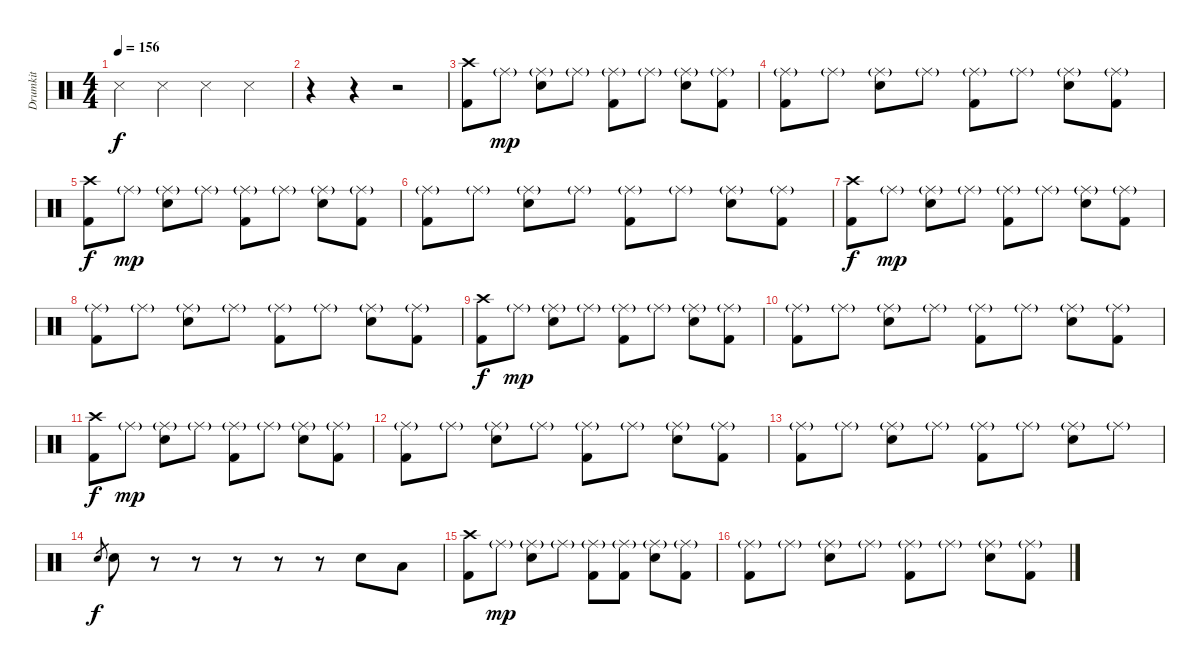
\track ("Drumkit" "Drumkit") {instrument percussion}
\staff {score}
\articulation defaults
\ts (4 4)
\tempo 156
\clef neutral
\ks c "Snare (side stick) 3".4{dy f} "Snare (side stick) 3".4 "Snare (side stick) 3".4 "Snare (side stick) 3".4
|
r.4 r.4 r.2 |
("Crash high (hit)" "Kick (hit) 2").8 "Ride (middle)"{g}.8{dy mp} ("Ride (middle)"{g} "Electric Snare (hit)").8 "Ride (middle)"{g}.8 ("Ride (middle)"{g} "Kick (hit) 2").8 "Ride (middle)"{g}.8 ("Ride (middle)"{g} "Electric Snare (hit)").8 ("Ride (middle)"{g} "Kick (hit) 2").8 |
("Ride (middle)"{g} "Kick (hit) 2").8 "Ride (middle)"{g}.8 ("Ride (middle)"{g} "Electric Snare (hit)").8 "Ride (middle)"{g}.8 ("Ride (middle)"{g} "Kick (hit) 2").8 "Ride (middle)"{g}.8 ("Ride (middle)"{g} "Electric Snare (hit)").8 ("Ride (middle)"{g} "Kick (hit) 2").8 |
("Crash high (hit)" "Kick (hit) 2").8{dy f} "Ride (middle)"{g}.8{dy mp} ("Ride (middle)"{g} "Electric Snare (hit)").8 "Ride (middle)"{g}.8 ("Ride (middle)"{g} "Kick (hit) 2").8 "Ride (middle)"{g}.8 ("Ride (middle)"{g} "Electric Snare (hit)").8 ("Ride (middle)"{g} "Kick (hit) 2").8 |
("Ride (middle)"{g} "Kick (hit) 2").8 "Ride (middle)"{g}.8 ("Ride (middle)"{g} "Electric Snare (hit)").8 "Ride (middle)"{g}.8 ("Ride (middle)"{g} "Kick (hit) 2").8 "Ride (middle)"{g}.8 ("Ride (middle)"{g} "Electric Snare (hit)").8 ("Ride (middle)"{g} "Kick (hit) 2").8 |
("Crash high (hit)" "Kick (hit) 2").8{dy f} "Ride (middle)"{g}.8{dy mp} ("Ride (middle)"{g} "Electric Snare (hit)").8 "Ride (middle)"{g}.8 ("Ride (middle)"{g} "Kick (hit) 2").8 "Ride (middle)"{g}.8 ("Ride (middle)"{g} "Electric Snare (hit)").8 ("Ride (middle)"{g} "Kick (hit) 2").8 |
("Ride (middle)"{g} "Kick (hit) 2").8 "Ride (middle)"{g}.8 ("Ride (middle)"{g} "Electric Snare (hit)").8 "Ride (middle)"{g}.8 ("Ride (middle)"{g} "Kick (hit) 2").8 "Ride (middle)"{g}.8 ("Ride (middle)"{g} "Electric Snare (hit)").8 ("Ride (middle)"{g} "Kick (hit) 2").8 |
("Crash high (hit)" "Kick (hit) 2").8{dy f} "Ride (middle)"{g}.8{dy mp} ("Ride (middle)"{g} "Electric Snare (hit)").8 "Ride (middle)"{g}.8 ("Ride (middle)"{g} "Kick (hit) 2").8 "Ride (middle)"{g}.8 ("Ride (middle)"{g} "Electric Snare (hit)").8 ("Ride (middle)"{g} "Kick (hit) 2").8 |
("Ride (middle)"{g} "Kick (hit) 2").8 "Ride (middle)"{g}.8 ("Ride (middle)"{g} "Electric Snare (hit)").8 "Ride (middle)"{g}.8 ("Ride (middle)"{g} "Kick (hit) 2").8 "Ride (middle)"{g}.8 ("Ride (middle)"{g} "Electric Snare (hit)").8 ("Ride (middle)"{g} "Kick (hit) 2").8 |
("Crash high (hit)" "Kick (hit) 2").8{dy f} "Ride (middle)"{g}.8{dy mp} ("Ride (middle)"{g} "Electric Snare (hit)").8 "Ride (middle)"{g}.8 ("Ride (middle)"{g} "Kick (hit) 2").8 "Ride (middle)"{g}.8 ("Ride (middle)"{g} "Electric Snare (hit)").8 ("Ride (middle)"{g} "Kick (hit) 2").8 |
("Ride (middle)"{g} "Kick (hit) 2").8 "Ride (middle)"{g}.8 ("Ride (middle)"{g} "Electric Snare (hit)").8 "Ride (middle)"{g}.8 ("Ride (middle)"{g} "Kick (hit) 2").8 "Ride (middle)"{g}.8 ("Ride (middle)"{g} "Electric Snare (hit)").8 ("Ride (middle)"{g} "Kick (hit) 2").8 |
("Ride (middle)"{g} "Kick (hit) 2").8 "Ride (middle)"{g}.8 ("Ride (middle)"{g} "Electric Snare (hit)").8 "Ride (middle)"{g}.8 ("Ride (middle)"{g} "Kick (hit) 2").8 "Ride (middle)"{g}.8 ("Ride (middle)"{g} "Electric Snare (hit)").8 "Ride (middle)"{g}.8 |
"Electric Snare (hit)".8{gr dy f} "Electric Snare (hit)".8 r.8 r.8 r.8 r.8 r.8 "Electric Snare (hit)".8 "Low Tom (hit)".8 |
("Crash high (hit)" "Kick (hit) 2").8 "Ride (middle)"{g}.8{dy mp} ("Ride (middle)"{g} "Electric Snare (hit)").8 "Ride (middle)"{g}.8 ("Ride (middle)"{g} "Kick (hit) 2").8 ("Ride (middle)"{g} "Kick (hit) 2").8 ("Ride (middle)"{g} "Electric Snare (hit)").8 ("Ride (middle)"{g} "Kick (hit) 2").8 |
("Ride (middle)"{g} "Kick (hit) 2").8 "Ride (middle)"{g}.8 ("Ride (middle)"{g} "Electric Snare (hit)").8 "Ride (middle)"{g}.8 ("Ride (middle)"{g} "Kick (hit) 2").8 "Ride (middle)"{g}.8 ("Ride (middle)"{g} "Electric Snare (hit)").8 ("Ride (middle)"{g} "Kick (hit) 2").8
